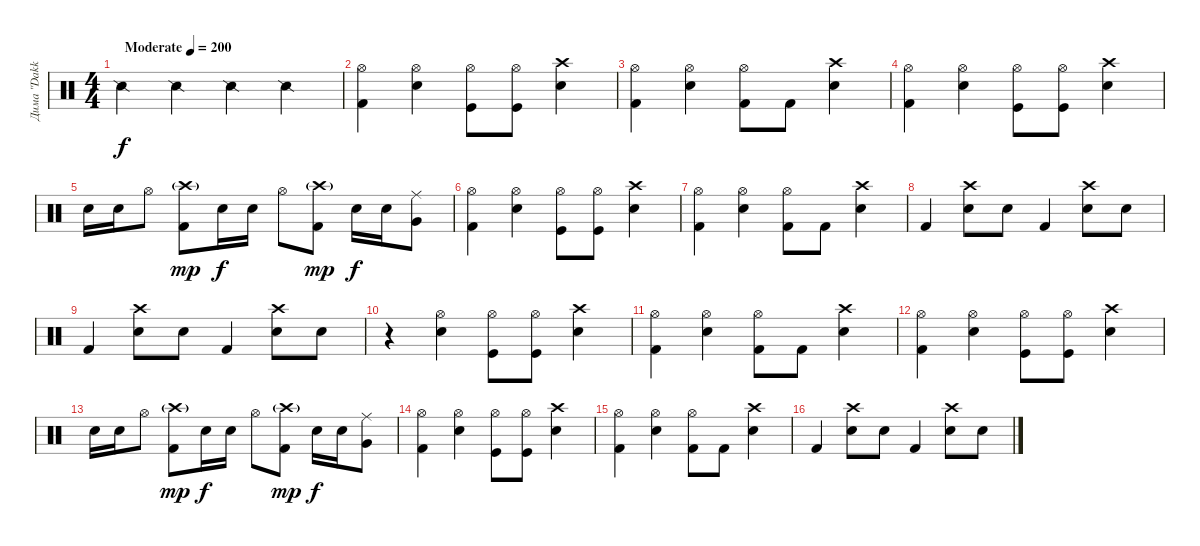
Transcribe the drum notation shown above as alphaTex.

\track ("Дима \"Dakkar\" Кеменов" "Дима \"Dakk") {instrument percussion}
\staff
\articulation defaults
\ts (4 4)
\tempo (200 "Moderate")
\clef neutral
\ks c "Snare (side stick) 2".4{dy f} "Snare (side stick) 2".4 "Snare (side stick) 2".4 "Snare (side stick) 2".4
|
("Hi-Hat (open)" "Kick (hit) 2").4 ("Hi-Hat (open)" "Electric Snare (hit)").4 ("Hi-Hat (open)" "Kick (hit)").8 ("Hi-Hat (open)" "Kick (hit)").8 ("Crash high (hit)" "Electric Snare (hit)").4 |
("Hi-Hat (open)" "Kick (hit) 2").4 ("Hi-Hat (open)" "Electric Snare (hit)").4 ("Hi-Hat (open)" "Kick (hit) 2").8 "Kick (hit) 2".8 ("Crash high (hit)" "Electric Snare (hit)").4 |
("Hi-Hat (open)" "Kick (hit) 2").4 ("Hi-Hat (open)" "Electric Snare (hit)").4 ("Hi-Hat (open)" "Kick (hit)").8 ("Hi-Hat (open)" "Kick (hit)").8 ("Crash high (hit)" "Electric Snare (hit)").4 |
"Electric Snare (hit)".16 "Electric Snare (hit)".16 "Hi-Hat (open)".8 ("Crash high (hit)"{g} "Kick (hit) 2").8{dy mp} "Electric Snare (hit)".16{dy f} "Electric Snare (hit)".16 "Hi-Hat (open)".8 ("Crash high (hit)"{g} "Kick (hit) 2").8{dy mp} "Electric Snare (hit)".16{dy f} "Electric Snare (hit)".16 ("Ride (middle)" "Very Low Tom (hit)").8 |
("Hi-Hat (open)" "Kick (hit) 2").4 ("Hi-Hat (open)" "Electric Snare (hit)").4 ("Hi-Hat (open)" "Kick (hit)").8 ("Hi-Hat (open)" "Kick (hit)").8 ("Crash high (hit)" "Electric Snare (hit)").4 |
("Hi-Hat (open)" "Kick (hit) 2").4 ("Hi-Hat (open)" "Electric Snare (hit)").4 ("Hi-Hat (open)" "Kick (hit) 2").8 "Kick (hit) 2".8 ("Crash high (hit)" "Electric Snare (hit)").4 |
"Kick (hit) 2".4 ("Crash high (hit)" "Electric Snare (hit)").8 "Electric Snare (hit)".8 "Kick (hit) 2".4 ("Crash high (hit)" "Electric Snare (hit)").8 "Electric Snare (hit)".8 |
"Kick (hit) 2".4 ("Crash high (hit)" "Electric Snare (hit)").8 "Electric Snare (hit)".8 "Kick (hit) 2".4 ("Crash high (hit)" "Electric Snare (hit)").8 "Electric Snare (hit)".8 |
r.4 ("Hi-Hat (open)" "Electric Snare (hit)").4 ("Hi-Hat (open)" "Kick (hit)").8 ("Hi-Hat (open)" "Kick (hit)").8 ("Crash high (hit)" "Electric Snare (hit)").4 |
("Hi-Hat (open)" "Kick (hit) 2").4 ("Hi-Hat (open)" "Electric Snare (hit)").4 ("Hi-Hat (open)" "Kick (hit) 2").8 "Kick (hit) 2".8 ("Crash high (hit)" "Electric Snare (hit)").4 |
("Hi-Hat (open)" "Kick (hit) 2").4 ("Hi-Hat (open)" "Electric Snare (hit)").4 ("Hi-Hat (open)" "Kick (hit)").8 ("Hi-Hat (open)" "Kick (hit)").8 ("Crash high (hit)" "Electric Snare (hit)").4 |
"Electric Snare (hit)".16 "Electric Snare (hit)".16 "Hi-Hat (open)".8 ("Crash high (hit)"{g} "Kick (hit) 2").8{dy mp} "Electric Snare (hit)".16{dy f} "Electric Snare (hit)".16 "Hi-Hat (open)".8 ("Crash high (hit)"{g} "Kick (hit) 2").8{dy mp} "Electric Snare (hit)".16{dy f} "Electric Snare (hit)".16 ("Ride (middle)" "Very Low Tom (hit)").8 |
("Hi-Hat (open)" "Kick (hit) 2").4 ("Hi-Hat (open)" "Electric Snare (hit)").4 ("Hi-Hat (open)" "Kick (hit)").8 ("Hi-Hat (open)" "Kick (hit)").8 ("Crash high (hit)" "Electric Snare (hit)").4 |
("Hi-Hat (open)" "Kick (hit) 2").4 ("Hi-Hat (open)" "Electric Snare (hit)").4 ("Hi-Hat (open)" "Kick (hit) 2").8 "Kick (hit) 2".8 ("Crash high (hit)" "Electric Snare (hit)").4 |
"Kick (hit) 2".4 ("Crash high (hit)" "Electric Snare (hit)").8 "Electric Snare (hit)".8 "Kick (hit) 2".4 ("Crash high (hit)" "Electric Snare (hit)").8 "Electric Snare (hit)".8
